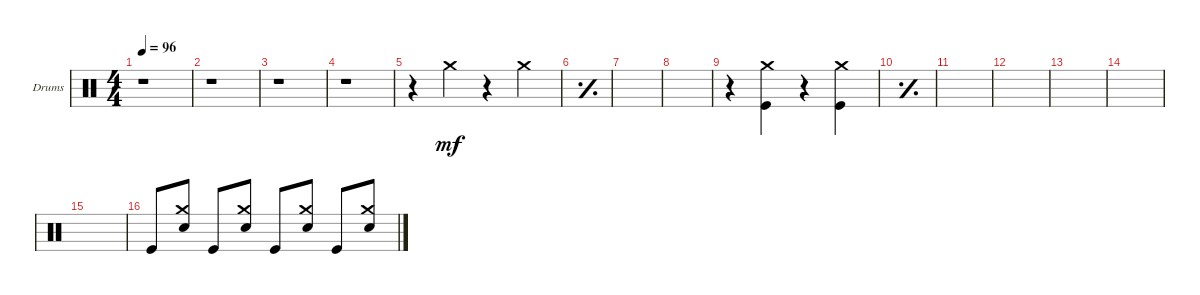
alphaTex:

\bracketExtendMode groupsimilarinstruments
\firstSystemTrackNameOrientation horizontal
\otherSystemsTrackNameOrientation horizontal
\track ("Drums" "Drums") {instrument percussion}
\staff {score}
\articulation defaults
\ts (4 4)
\beaming (8 2 2 2 2)
\tempo 96
\clef neutral
\ks c
r.1{dy mf} |
r.1 |
r.1 |
r.1 |
r.4 "Crash medium (hit)".4 r.4 "Crash medium (hit)".4 |
\simile simple
|
|
|
\simile none
r.4 ("Kick (hit)" "Crash medium (hit)").4 r.4 ("Kick (hit)" "Crash medium (hit)").4 |
\simile simple
|
|
|
|
|
|
\simile none "Kick (hit)".8{beam invert}
("Snare (hit) 2" "Crash medium (hit)").8 "Kick (hit)".8{beam invert} ("Snare (hit) 2" "Crash medium (hit)").8 "Kick (hit)".8{beam invert} ("Snare (hit) 2" "Crash medium (hit)").8 "Kick (hit)".8{beam invert} ("Snare (hit) 2" "Crash medium (hit)").8
